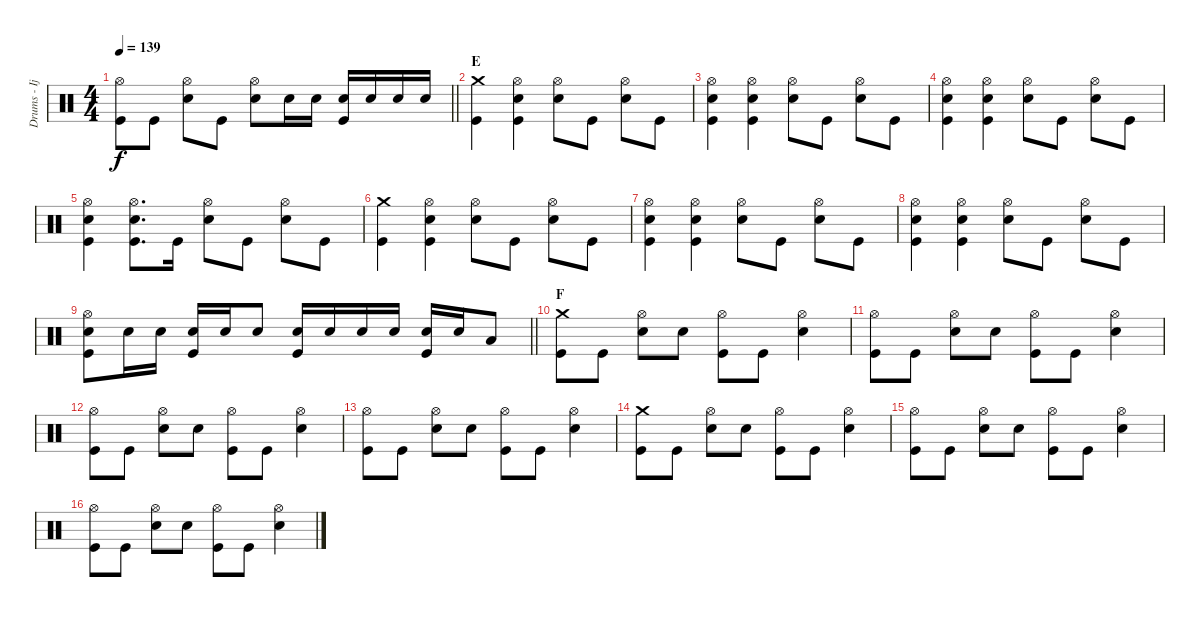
\track ("Drums - Ijichi" "Drums - Ij") {instrument percussion}
\staff {score}
\articulation defaults
\ts (4 4)
\tempo 139
\clef neutral
\barLineRight lightlight
\ks c
("Hi-Hat (open)" "Kick (hit)").8{dy f} "Kick (hit)".8 ("Hi-Hat (open)" "Electric Snare (hit)").8 "Kick (hit)".8 ("Hi-Hat (open)" "Electric Snare (hit)").8 "Electric Snare (hit)".16 "Electric Snare (hit)".16 ("Electric Snare (hit)" "Kick (hit)").16 "Electric Snare (hit)".16 "Electric Snare (hit)".16 "Electric Snare (hit)".16 |
\section ("" "E")
("Crash medium (hit)" "Kick (hit)").4 ("Hi-Hat (open)" "Electric Snare (hit)" "Kick (hit)").4 ("Hi-Hat (open)" "Electric Snare (hit)").8 "Kick (hit)".8 ("Hi-Hat (open)" "Electric Snare (hit)").8 "Kick (hit)".8 |
("Hi-Hat (open)" "Electric Snare (hit)" "Kick (hit)").4 ("Hi-Hat (open)" "Electric Snare (hit)" "Kick (hit)").4 ("Hi-Hat (open)" "Electric Snare (hit)").8 "Kick (hit)".8 ("Hi-Hat (open)" "Electric Snare (hit)").8 "Kick (hit)".8 |
("Hi-Hat (open)" "Electric Snare (hit)" "Kick (hit)").4 ("Hi-Hat (open)" "Electric Snare (hit)" "Kick (hit)").4 ("Hi-Hat (open)" "Electric Snare (hit)").8 "Kick (hit)".8 ("Hi-Hat (open)" "Electric Snare (hit)").8 "Kick (hit)".8 |
("Hi-Hat (open)" "Electric Snare (hit)" "Kick (hit)").4 ("Hi-Hat (open)" "Electric Snare (hit)" "Kick (hit)").8{d} "Kick (hit)".16 ("Hi-Hat (open)" "Electric Snare (hit)").8 "Kick (hit)".8 ("Hi-Hat (open)" "Electric Snare (hit)").8 "Kick (hit)".8 |
("Crash medium (hit)" "Kick (hit)").4 ("Hi-Hat (open)" "Electric Snare (hit)" "Kick (hit)").4 ("Hi-Hat (open)" "Electric Snare (hit)").8 "Kick (hit)".8 ("Hi-Hat (open)" "Electric Snare (hit)").8 "Kick (hit)".8 |
("Hi-Hat (open)" "Electric Snare (hit)" "Kick (hit)").4 ("Hi-Hat (open)" "Electric Snare (hit)" "Kick (hit)").4 ("Hi-Hat (open)" "Electric Snare (hit)").8 "Kick (hit)".8 ("Hi-Hat (open)" "Electric Snare (hit)").8 "Kick (hit)".8 |
("Hi-Hat (open)" "Electric Snare (hit)" "Kick (hit)").4 ("Hi-Hat (open)" "Electric Snare (hit)" "Kick (hit)").4 ("Hi-Hat (open)" "Electric Snare (hit)").8 "Kick (hit)".8 ("Hi-Hat (open)" "Electric Snare (hit)").8 "Kick (hit)".8 |
\barLineRight lightlight
("Hi-Hat (open)" "Electric Snare (hit)" "Kick (hit)").8 "Electric Snare (hit)".16 "Electric Snare (hit)".16 ("Electric Snare (hit)" "Kick (hit)").16 "Electric Snare (hit)".16 "Electric Snare (hit)".8 ("Electric Snare (hit)" "Kick (hit)").16 "Electric Snare (hit)".16 "Electric Snare (hit)".16 "Electric Snare (hit)".16 ("Electric Snare (hit)" "Kick (hit)").16 "Electric Snare (hit)".16 "Low Tom (hit)".8 |
\section ("" "F")
("Crash medium (hit)" "Kick (hit)").8 "Kick (hit)".8 ("Hi-Hat (open)" "Electric Snare (hit)").8 "Electric Snare (hit)".8 ("Hi-Hat (open)" "Kick (hit)").8 "Kick (hit)".8 ("Hi-Hat (open)" "Electric Snare (hit)").4 |
("Hi-Hat (open)" "Kick (hit)").8 "Kick (hit)".8 ("Hi-Hat (open)" "Electric Snare (hit)").8 "Electric Snare (hit)".8 ("Hi-Hat (open)" "Kick (hit)").8 "Kick (hit)".8 ("Hi-Hat (open)" "Electric Snare (hit)").4 |
("Hi-Hat (open)" "Kick (hit)").8 "Kick (hit)".8 ("Hi-Hat (open)" "Electric Snare (hit)").8 "Electric Snare (hit)".8 ("Hi-Hat (open)" "Kick (hit)").8 "Kick (hit)".8 ("Hi-Hat (open)" "Electric Snare (hit)").4 |
("Hi-Hat (open)" "Kick (hit)").8 "Kick (hit)".8 ("Hi-Hat (open)" "Electric Snare (hit)").8 "Electric Snare (hit)".8 ("Hi-Hat (open)" "Kick (hit)").8 "Kick (hit)".8 ("Hi-Hat (open)" "Electric Snare (hit)").4 |
("Crash medium (hit)" "Kick (hit)").8 "Kick (hit)".8 ("Hi-Hat (open)" "Electric Snare (hit)").8 "Electric Snare (hit)".8 ("Hi-Hat (open)" "Kick (hit)").8 "Kick (hit)".8 ("Hi-Hat (open)" "Electric Snare (hit)").4 |
("Hi-Hat (open)" "Kick (hit)").8 "Kick (hit)".8 ("Hi-Hat (open)" "Electric Snare (hit)").8 "Electric Snare (hit)".8 ("Hi-Hat (open)" "Kick (hit)").8 "Kick (hit)".8 ("Hi-Hat (open)" "Electric Snare (hit)").4 |
("Hi-Hat (open)" "Kick (hit)").8 "Kick (hit)".8 ("Hi-Hat (open)" "Electric Snare (hit)").8 "Electric Snare (hit)".8 ("Hi-Hat (open)" "Kick (hit)").8 "Kick (hit)".8 ("Hi-Hat (open)" "Electric Snare (hit)").4
